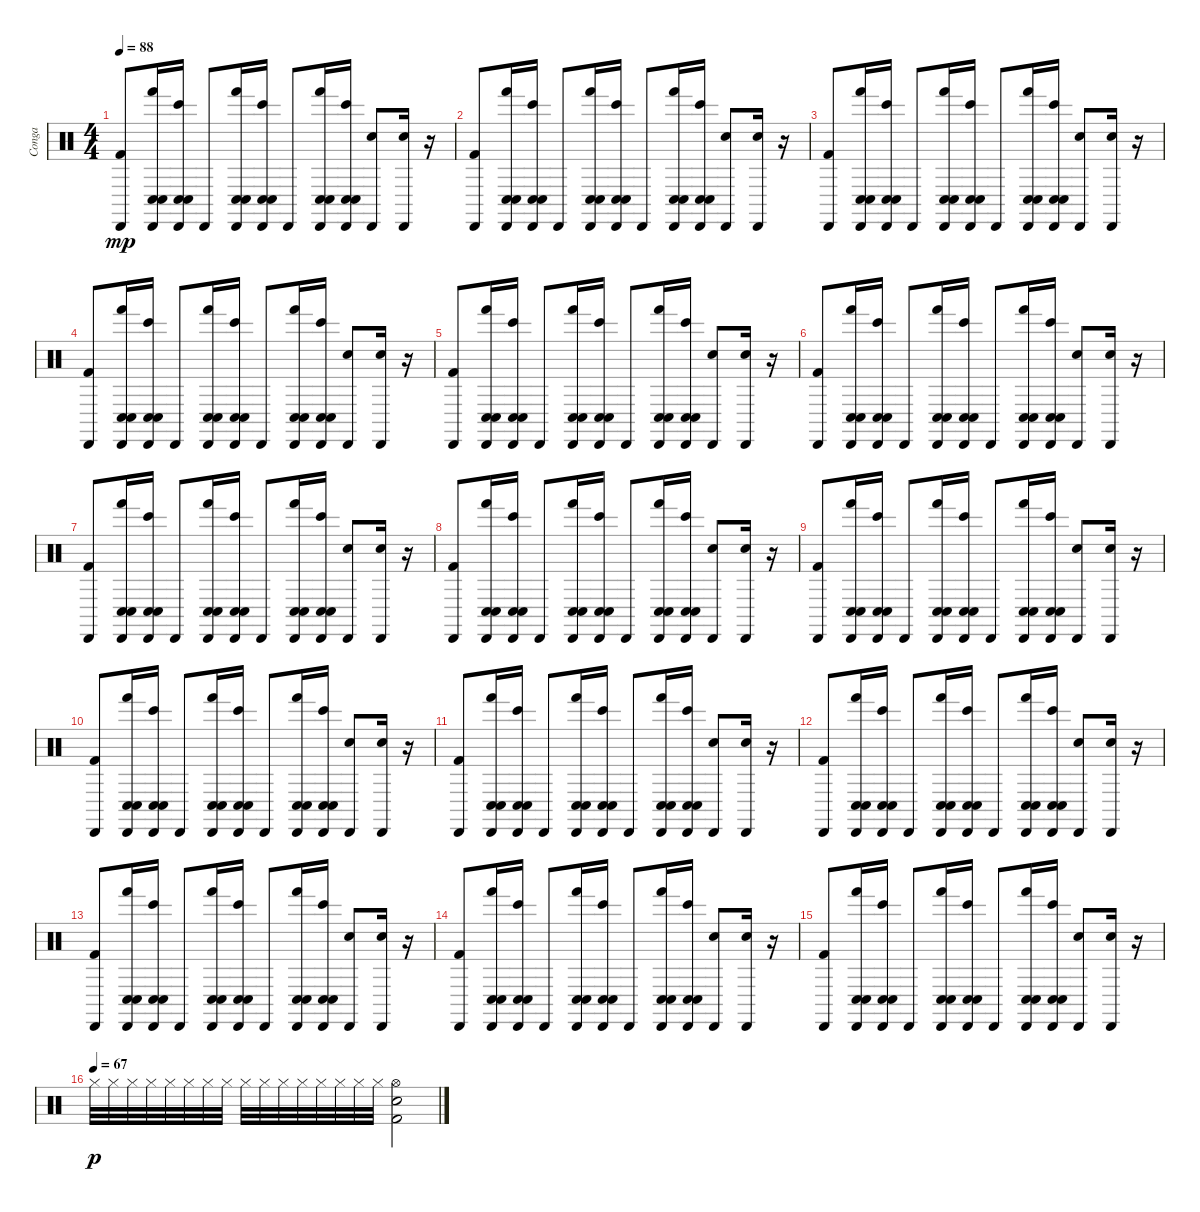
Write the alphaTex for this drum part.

\track ("Conga" "Conga") {instrument percussion}
\staff {score}
\articulation defaults
\ts (4 4)
\tempo 88
\clef neutral
\ks c
("Cabasa (hit)" "Kick (hit) 2").8{dy mp} ("Cabasa (hit)" "Conga low (hit)" "Conga low (hit)" "Hand (hit)").16 ("Cabasa (hit)" "Conga low (hit)" "Conga low (hit)" "Bongo High (hit)").16 "Cabasa (hit)".8 ("Cabasa (hit)" "Conga low (hit)" "Conga low (hit)" "Hand (hit)").16 ("Cabasa (hit)" "Conga low (hit)" "Conga low (hit)" "Bongo High (hit)").16 "Cabasa (hit)".8 ("Cabasa (hit)" "Conga low (hit)" "Conga low (hit)" "Hand (hit)").16 ("Cabasa (hit)" "Conga low (hit)" "Conga low (hit)" "Bongo High (hit)").16 ("Cabasa (hit)" "Electric Snare (hit)").8 ("Cabasa (hit)" "Electric Snare (hit)").16 r.16 |
("Cabasa (hit)" "Kick (hit) 2").8 ("Cabasa (hit)" "Conga low (hit)" "Conga low (hit)" "Hand (hit)").16 ("Cabasa (hit)" "Conga low (hit)" "Conga low (hit)" "Bongo High (hit)").16 "Cabasa (hit)".8 ("Cabasa (hit)" "Conga low (hit)" "Conga low (hit)" "Hand (hit)").16 ("Cabasa (hit)" "Conga low (hit)" "Conga low (hit)" "Bongo High (hit)").16 "Cabasa (hit)".8 ("Cabasa (hit)" "Conga low (hit)" "Conga low (hit)" "Hand (hit)").16 ("Cabasa (hit)" "Conga low (hit)" "Conga low (hit)" "Bongo High (hit)").16 ("Cabasa (hit)" "Electric Snare (hit)").8 ("Cabasa (hit)" "Electric Snare (hit)").16 r.16 |
("Cabasa (hit)" "Kick (hit) 2").8 ("Cabasa (hit)" "Conga low (hit)" "Conga low (hit)" "Hand (hit)").16 ("Cabasa (hit)" "Conga low (hit)" "Conga low (hit)" "Bongo High (hit)").16 "Cabasa (hit)".8 ("Cabasa (hit)" "Conga low (hit)" "Conga low (hit)" "Hand (hit)").16 ("Cabasa (hit)" "Conga low (hit)" "Conga low (hit)" "Bongo High (hit)").16 "Cabasa (hit)".8 ("Cabasa (hit)" "Conga low (hit)" "Conga low (hit)" "Hand (hit)").16 ("Cabasa (hit)" "Conga low (hit)" "Conga low (hit)" "Bongo High (hit)").16 ("Cabasa (hit)" "Electric Snare (hit)").8 ("Cabasa (hit)" "Electric Snare (hit)").16 r.16 |
("Cabasa (hit)" "Kick (hit) 2").8 ("Cabasa (hit)" "Conga low (hit)" "Conga low (hit)" "Hand (hit)").16 ("Cabasa (hit)" "Conga low (hit)" "Conga low (hit)" "Bongo High (hit)").16 "Cabasa (hit)".8 ("Cabasa (hit)" "Conga low (hit)" "Conga low (hit)" "Hand (hit)").16 ("Cabasa (hit)" "Conga low (hit)" "Conga low (hit)" "Bongo High (hit)").16 "Cabasa (hit)".8 ("Cabasa (hit)" "Conga low (hit)" "Conga low (hit)" "Hand (hit)").16 ("Cabasa (hit)" "Conga low (hit)" "Conga low (hit)" "Bongo High (hit)").16 ("Cabasa (hit)" "Electric Snare (hit)").8 ("Cabasa (hit)" "Electric Snare (hit)").16 r.16 |
("Cabasa (hit)" "Kick (hit) 2").8 ("Cabasa (hit)" "Conga low (hit)" "Conga low (hit)" "Hand (hit)").16 ("Cabasa (hit)" "Conga low (hit)" "Conga low (hit)" "Bongo High (hit)").16 "Cabasa (hit)".8 ("Cabasa (hit)" "Conga low (hit)" "Conga low (hit)" "Hand (hit)").16 ("Cabasa (hit)" "Conga low (hit)" "Conga low (hit)" "Bongo High (hit)").16 "Cabasa (hit)".8 ("Cabasa (hit)" "Conga low (hit)" "Conga low (hit)" "Hand (hit)").16 ("Cabasa (hit)" "Conga low (hit)" "Conga low (hit)" "Bongo High (hit)").16 ("Cabasa (hit)" "Electric Snare (hit)").8 ("Cabasa (hit)" "Electric Snare (hit)").16 r.16 |
("Cabasa (hit)" "Kick (hit) 2").8 ("Cabasa (hit)" "Conga low (hit)" "Conga low (hit)" "Hand (hit)").16 ("Cabasa (hit)" "Conga low (hit)" "Conga low (hit)" "Bongo High (hit)").16 "Cabasa (hit)".8 ("Cabasa (hit)" "Conga low (hit)" "Conga low (hit)" "Hand (hit)").16 ("Cabasa (hit)" "Conga low (hit)" "Conga low (hit)" "Bongo High (hit)").16 "Cabasa (hit)".8 ("Cabasa (hit)" "Conga low (hit)" "Conga low (hit)" "Hand (hit)").16 ("Cabasa (hit)" "Conga low (hit)" "Conga low (hit)" "Bongo High (hit)").16 ("Cabasa (hit)" "Electric Snare (hit)").8 ("Cabasa (hit)" "Electric Snare (hit)").16 r.16 |
("Cabasa (hit)" "Kick (hit) 2").8 ("Cabasa (hit)" "Conga low (hit)" "Conga low (hit)" "Hand (hit)").16 ("Cabasa (hit)" "Conga low (hit)" "Conga low (hit)" "Bongo High (hit)").16 "Cabasa (hit)".8 ("Cabasa (hit)" "Conga low (hit)" "Conga low (hit)" "Hand (hit)").16 ("Cabasa (hit)" "Conga low (hit)" "Conga low (hit)" "Bongo High (hit)").16 "Cabasa (hit)".8 ("Cabasa (hit)" "Conga low (hit)" "Conga low (hit)" "Hand (hit)").16 ("Cabasa (hit)" "Conga low (hit)" "Conga low (hit)" "Bongo High (hit)").16 ("Cabasa (hit)" "Electric Snare (hit)").8 ("Cabasa (hit)" "Electric Snare (hit)").16 r.16 |
("Cabasa (hit)" "Kick (hit) 2").8 ("Cabasa (hit)" "Conga low (hit)" "Conga low (hit)" "Hand (hit)").16 ("Cabasa (hit)" "Conga low (hit)" "Conga low (hit)" "Bongo High (hit)").16 "Cabasa (hit)".8 ("Cabasa (hit)" "Conga low (hit)" "Conga low (hit)" "Hand (hit)").16 ("Cabasa (hit)" "Conga low (hit)" "Conga low (hit)" "Bongo High (hit)").16 "Cabasa (hit)".8 ("Cabasa (hit)" "Conga low (hit)" "Conga low (hit)" "Hand (hit)").16 ("Cabasa (hit)" "Conga low (hit)" "Conga low (hit)" "Bongo High (hit)").16 ("Cabasa (hit)" "Electric Snare (hit)").8 ("Cabasa (hit)" "Electric Snare (hit)").16 r.16 |
("Cabasa (hit)" "Kick (hit) 2").8 ("Cabasa (hit)" "Conga low (hit)" "Conga low (hit)" "Hand (hit)").16 ("Cabasa (hit)" "Conga low (hit)" "Conga low (hit)" "Bongo High (hit)").16 "Cabasa (hit)".8 ("Cabasa (hit)" "Conga low (hit)" "Conga low (hit)" "Hand (hit)").16 ("Cabasa (hit)" "Conga low (hit)" "Conga low (hit)" "Bongo High (hit)").16 "Cabasa (hit)".8 ("Cabasa (hit)" "Conga low (hit)" "Conga low (hit)" "Hand (hit)").16 ("Cabasa (hit)" "Conga low (hit)" "Conga low (hit)" "Bongo High (hit)").16 ("Cabasa (hit)" "Electric Snare (hit)").8 ("Cabasa (hit)" "Electric Snare (hit)").16 r.16 |
("Cabasa (hit)" "Kick (hit) 2").8 ("Cabasa (hit)" "Conga low (hit)" "Conga low (hit)" "Hand (hit)").16 ("Cabasa (hit)" "Conga low (hit)" "Conga low (hit)" "Bongo High (hit)").16 "Cabasa (hit)".8 ("Cabasa (hit)" "Conga low (hit)" "Conga low (hit)" "Hand (hit)").16 ("Cabasa (hit)" "Conga low (hit)" "Conga low (hit)" "Bongo High (hit)").16 "Cabasa (hit)".8 ("Cabasa (hit)" "Conga low (hit)" "Conga low (hit)" "Hand (hit)").16 ("Cabasa (hit)" "Conga low (hit)" "Conga low (hit)" "Bongo High (hit)").16 ("Cabasa (hit)" "Electric Snare (hit)").8 ("Cabasa (hit)" "Electric Snare (hit)").16 r.16 |
("Cabasa (hit)" "Kick (hit) 2").8 ("Cabasa (hit)" "Conga low (hit)" "Conga low (hit)" "Hand (hit)").16 ("Cabasa (hit)" "Conga low (hit)" "Conga low (hit)" "Bongo High (hit)").16 "Cabasa (hit)".8 ("Cabasa (hit)" "Conga low (hit)" "Conga low (hit)" "Hand (hit)").16 ("Cabasa (hit)" "Conga low (hit)" "Conga low (hit)" "Bongo High (hit)").16 "Cabasa (hit)".8 ("Cabasa (hit)" "Conga low (hit)" "Conga low (hit)" "Hand (hit)").16 ("Cabasa (hit)" "Conga low (hit)" "Conga low (hit)" "Bongo High (hit)").16 ("Cabasa (hit)" "Electric Snare (hit)").8 ("Cabasa (hit)" "Electric Snare (hit)").16 r.16 |
("Cabasa (hit)" "Kick (hit) 2").8 ("Cabasa (hit)" "Conga low (hit)" "Conga low (hit)" "Hand (hit)").16 ("Cabasa (hit)" "Conga low (hit)" "Conga low (hit)" "Bongo High (hit)").16 "Cabasa (hit)".8 ("Cabasa (hit)" "Conga low (hit)" "Conga low (hit)" "Hand (hit)").16 ("Cabasa (hit)" "Conga low (hit)" "Conga low (hit)" "Bongo High (hit)").16 "Cabasa (hit)".8 ("Cabasa (hit)" "Conga low (hit)" "Conga low (hit)" "Hand (hit)").16 ("Cabasa (hit)" "Conga low (hit)" "Conga low (hit)" "Bongo High (hit)").16 ("Cabasa (hit)" "Electric Snare (hit)").8 ("Cabasa (hit)" "Electric Snare (hit)").16 r.16 |
("Cabasa (hit)" "Kick (hit) 2").8 ("Cabasa (hit)" "Conga low (hit)" "Conga low (hit)" "Hand (hit)").16 ("Cabasa (hit)" "Conga low (hit)" "Conga low (hit)" "Bongo High (hit)").16 "Cabasa (hit)".8 ("Cabasa (hit)" "Conga low (hit)" "Conga low (hit)" "Hand (hit)").16 ("Cabasa (hit)" "Conga low (hit)" "Conga low (hit)" "Bongo High (hit)").16 "Cabasa (hit)".8 ("Cabasa (hit)" "Conga low (hit)" "Conga low (hit)" "Hand (hit)").16 ("Cabasa (hit)" "Conga low (hit)" "Conga low (hit)" "Bongo High (hit)").16 ("Cabasa (hit)" "Electric Snare (hit)").8 ("Cabasa (hit)" "Electric Snare (hit)").16 r.16 |
("Cabasa (hit)" "Kick (hit) 2").8 ("Cabasa (hit)" "Conga low (hit)" "Conga low (hit)" "Hand (hit)").16 ("Cabasa (hit)" "Conga low (hit)" "Conga low (hit)" "Bongo High (hit)").16 "Cabasa (hit)".8 ("Cabasa (hit)" "Conga low (hit)" "Conga low (hit)" "Hand (hit)").16 ("Cabasa (hit)" "Conga low (hit)" "Conga low (hit)" "Bongo High (hit)").16 "Cabasa (hit)".8 ("Cabasa (hit)" "Conga low (hit)" "Conga low (hit)" "Hand (hit)").16 ("Cabasa (hit)" "Conga low (hit)" "Conga low (hit)" "Bongo High (hit)").16 ("Cabasa (hit)" "Electric Snare (hit)").8 ("Cabasa (hit)" "Electric Snare (hit)").16 r.16 |
("Cabasa (hit)" "Kick (hit) 2").8 ("Cabasa (hit)" "Conga low (hit)" "Conga low (hit)" "Hand (hit)").16 ("Cabasa (hit)" "Conga low (hit)" "Conga low (hit)" "Bongo High (hit)").16 "Cabasa (hit)".8 ("Cabasa (hit)" "Conga low (hit)" "Conga low (hit)" "Hand (hit)").16 ("Cabasa (hit)" "Conga low (hit)" "Conga low (hit)" "Bongo High (hit)").16 "Cabasa (hit)".8 ("Cabasa (hit)" "Conga low (hit)" "Conga low (hit)" "Hand (hit)").16 ("Cabasa (hit)" "Conga low (hit)" "Conga low (hit)" "Bongo High (hit)").16 ("Cabasa (hit)" "Electric Snare (hit)").8 ("Cabasa (hit)" "Electric Snare (hit)").16 r.16 |
\tempo (67)
"Hi-Hat (closed)".32{dy p volume 1} "Hi-Hat (closed)".32{volume 2} "Hi-Hat (closed)".32{volume 3} "Hi-Hat (closed)".32{volume 4} "Hi-Hat (closed)".32{volume 5} "Hi-Hat (closed)".32{volume 6} "Hi-Hat (closed)".32{volume 7} "Hi-Hat (closed)".32{volume 8} "Hi-Hat (closed)".32{volume 9} "Hi-Hat (closed)".32{volume 10} "Hi-Hat (closed)".32{volume 11} "Hi-Hat (closed)".32{volume 12} "Hi-Hat (closed)".32{volume 13} "Hi-Hat (closed)".32{volume 14} "Hi-Hat (closed)".32{volume 15} "Hi-Hat (closed)".32{volume 16} ("Hi-Hat (open)" "Electric Snare (hit)" "Kick (hit) 2").2
